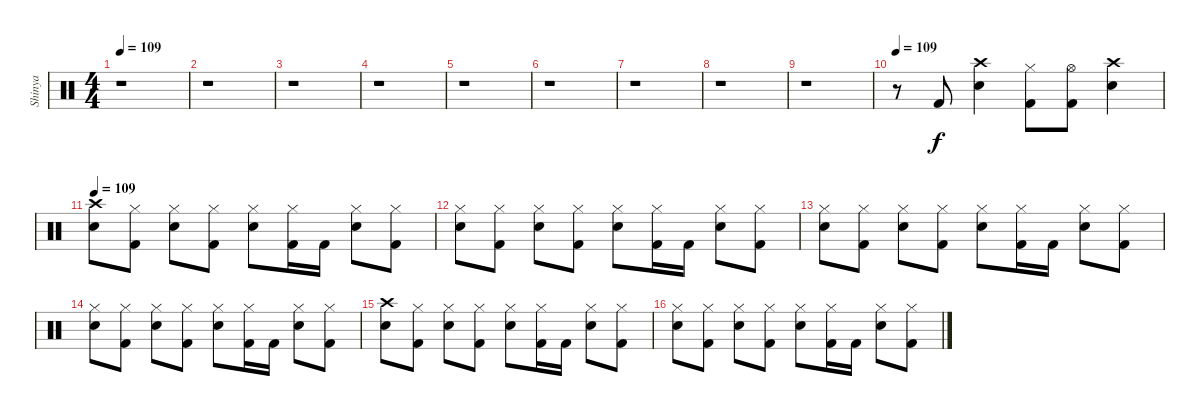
\track ("Shinya" "Shinya") {instrument percussion}
\staff {score}
\articulation defaults
\ts (4 4)
\tempo 109
\tempo 75
\tempo 109
\clef neutral
\ks c
r.1{dy f} |
r.1 |
r.1 |
r.1 |
r.1 |
r.1 |
r.1 |
r.1 |
r.1 |
\tempo 109
r.8 "Kick (hit) 2".8 ("Crash high (hit)" "Snare (hit) 2").4 ("Hi-Hat (closed)" "Kick (hit) 2").8 ("Hi-Hat (open)" "Kick (hit) 2").8 ("Crash high (hit)" "Snare (hit) 2").4 |
\tempo 109
("Crash high (hit)" "Snare (hit) 2").8 ("Hi-Hat (closed)" "Kick (hit) 2").8 ("Hi-Hat (closed)" "Snare (hit) 2").8 ("Hi-Hat (closed)" "Kick (hit) 2").8 ("Hi-Hat (closed)" "Snare (hit) 2").8 ("Hi-Hat (closed)" "Kick (hit) 2").16 "Kick (hit) 2".16 ("Hi-Hat (closed)" "Snare (hit) 2").8 ("Hi-Hat (closed)" "Kick (hit) 2").8 |
("Hi-Hat (closed)" "Snare (hit) 2").8 ("Hi-Hat (closed)" "Kick (hit) 2").8 ("Hi-Hat (closed)" "Snare (hit) 2").8 ("Hi-Hat (closed)" "Kick (hit) 2").8 ("Hi-Hat (closed)" "Snare (hit) 2").8 ("Hi-Hat (closed)" "Kick (hit) 2").16 "Kick (hit) 2".16 ("Hi-Hat (closed)" "Snare (hit) 2").8 ("Hi-Hat (closed)" "Kick (hit) 2").8 |
("Hi-Hat (closed)" "Snare (hit) 2").8 ("Hi-Hat (closed)" "Kick (hit) 2").8 ("Hi-Hat (closed)" "Snare (hit) 2").8 ("Hi-Hat (closed)" "Kick (hit) 2").8 ("Hi-Hat (closed)" "Snare (hit) 2").8 ("Hi-Hat (closed)" "Kick (hit) 2").16 "Kick (hit) 2".16 ("Hi-Hat (closed)" "Snare (hit) 2").8 ("Hi-Hat (closed)" "Kick (hit) 2").8 |
("Hi-Hat (closed)" "Snare (hit) 2").8 ("Hi-Hat (closed)" "Kick (hit) 2").8 ("Hi-Hat (closed)" "Snare (hit) 2").8 ("Hi-Hat (closed)" "Kick (hit) 2").8 ("Hi-Hat (closed)" "Snare (hit) 2").8 ("Hi-Hat (closed)" "Kick (hit) 2").16 "Kick (hit) 2".16 ("Hi-Hat (closed)" "Snare (hit) 2").8 ("Hi-Hat (closed)" "Kick (hit) 2").8 |
("Crash high (hit)" "Snare (hit) 2").8 ("Hi-Hat (closed)" "Kick (hit) 2").8 ("Hi-Hat (closed)" "Snare (hit) 2").8 ("Hi-Hat (closed)" "Kick (hit) 2").8 ("Hi-Hat (closed)" "Snare (hit) 2").8 ("Hi-Hat (closed)" "Kick (hit) 2").16 "Kick (hit) 2".16 ("Hi-Hat (closed)" "Snare (hit) 2").8 ("Hi-Hat (closed)" "Kick (hit) 2").8 |
("Hi-Hat (closed)" "Snare (hit) 2").8 ("Hi-Hat (closed)" "Kick (hit) 2").8 ("Hi-Hat (closed)" "Snare (hit) 2").8 ("Hi-Hat (closed)" "Kick (hit) 2").8 ("Hi-Hat (closed)" "Snare (hit) 2").8 ("Hi-Hat (closed)" "Kick (hit) 2").16 "Kick (hit) 2".16 ("Hi-Hat (closed)" "Snare (hit) 2").8 ("Hi-Hat (closed)" "Kick (hit) 2").8
